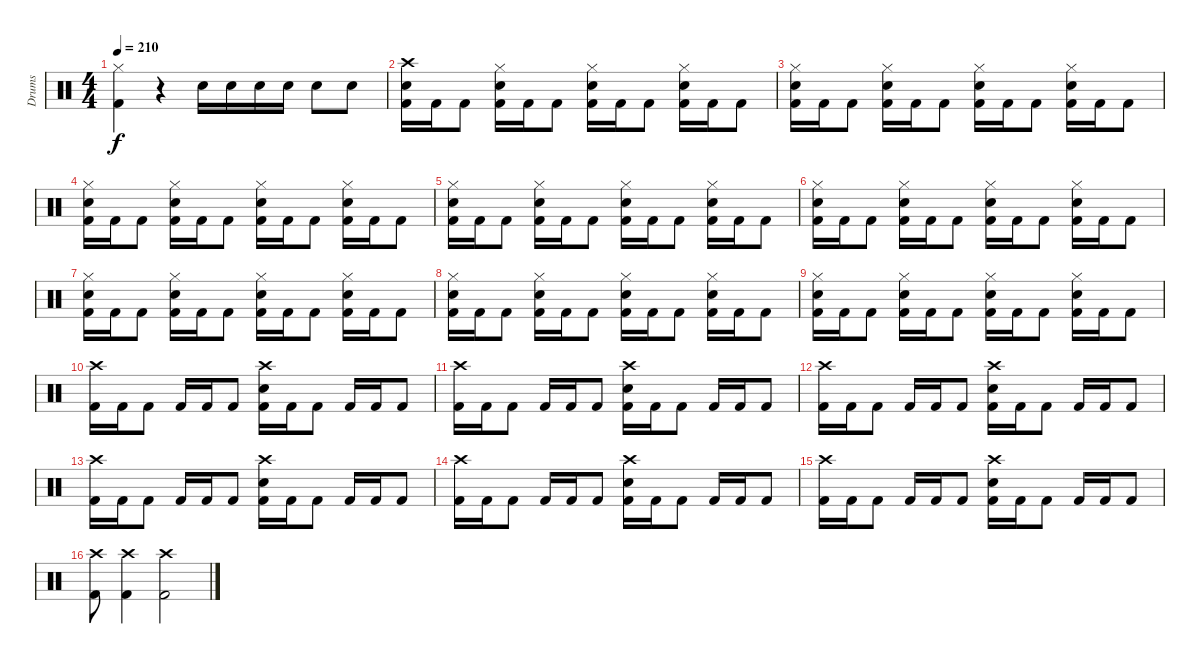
\track ("Drums" "Drums") {instrument percussion}
\staff {score}
\articulation defaults
\ts (4 4)
\tempo 210
\clef neutral
\ks c
("Hi-Hat (closed)" "Kick (hit) 2").4{dy f} r.4 "Electric Snare (hit)".16 "Electric Snare (hit)".16 "Electric Snare (hit)".16 "Electric Snare (hit)".16 "Electric Snare (hit)".8 "Electric Snare (hit)".8 |
("Crash high (hit)" "Electric Snare (hit)" "Kick (hit) 2").16 "Kick (hit) 2".16 "Kick (hit) 2".8 ("Hi-Hat (closed)" "Electric Snare (hit)" "Kick (hit) 2").16 "Kick (hit) 2".16 "Kick (hit) 2".8 ("Hi-Hat (closed)" "Electric Snare (hit)" "Kick (hit) 2").16 "Kick (hit) 2".16 "Kick (hit) 2".8 ("Hi-Hat (closed)" "Electric Snare (hit)" "Kick (hit) 2").16 "Kick (hit) 2".16 "Kick (hit) 2".8 |
("Hi-Hat (closed)" "Electric Snare (hit)" "Kick (hit) 2").16 "Kick (hit) 2".16 "Kick (hit) 2".8 ("Hi-Hat (closed)" "Electric Snare (hit)" "Kick (hit) 2").16 "Kick (hit) 2".16 "Kick (hit) 2".8 ("Hi-Hat (closed)" "Electric Snare (hit)" "Kick (hit) 2").16 "Kick (hit) 2".16 "Kick (hit) 2".8 ("Hi-Hat (closed)" "Electric Snare (hit)" "Kick (hit) 2").16 "Kick (hit) 2".16 "Kick (hit) 2".8 |
("Hi-Hat (closed)" "Electric Snare (hit)" "Kick (hit) 2").16 "Kick (hit) 2".16 "Kick (hit) 2".8 ("Hi-Hat (closed)" "Electric Snare (hit)" "Kick (hit) 2").16 "Kick (hit) 2".16 "Kick (hit) 2".8 ("Hi-Hat (closed)" "Electric Snare (hit)" "Kick (hit) 2").16 "Kick (hit) 2".16 "Kick (hit) 2".8 ("Hi-Hat (closed)" "Electric Snare (hit)" "Kick (hit) 2").16 "Kick (hit) 2".16 "Kick (hit) 2".8 |
("Hi-Hat (closed)" "Electric Snare (hit)" "Kick (hit) 2").16 "Kick (hit) 2".16 "Kick (hit) 2".8 ("Hi-Hat (closed)" "Electric Snare (hit)" "Kick (hit) 2").16 "Kick (hit) 2".16 "Kick (hit) 2".8 ("Hi-Hat (closed)" "Electric Snare (hit)" "Kick (hit) 2").16 "Kick (hit) 2".16 "Kick (hit) 2".8 ("Hi-Hat (closed)" "Electric Snare (hit)" "Kick (hit) 2").16 "Kick (hit) 2".16 "Kick (hit) 2".8 |
("Hi-Hat (closed)" "Electric Snare (hit)" "Kick (hit) 2").16 "Kick (hit) 2".16 "Kick (hit) 2".8 ("Hi-Hat (closed)" "Electric Snare (hit)" "Kick (hit) 2").16 "Kick (hit) 2".16 "Kick (hit) 2".8 ("Hi-Hat (closed)" "Electric Snare (hit)" "Kick (hit) 2").16 "Kick (hit) 2".16 "Kick (hit) 2".8 ("Hi-Hat (closed)" "Electric Snare (hit)" "Kick (hit) 2").16 "Kick (hit) 2".16 "Kick (hit) 2".8 |
("Hi-Hat (closed)" "Electric Snare (hit)" "Kick (hit) 2").16 "Kick (hit) 2".16 "Kick (hit) 2".8 ("Hi-Hat (closed)" "Electric Snare (hit)" "Kick (hit) 2").16 "Kick (hit) 2".16 "Kick (hit) 2".8 ("Hi-Hat (closed)" "Electric Snare (hit)" "Kick (hit) 2").16 "Kick (hit) 2".16 "Kick (hit) 2".8 ("Hi-Hat (closed)" "Electric Snare (hit)" "Kick (hit) 2").16 "Kick (hit) 2".16 "Kick (hit) 2".8 |
("Hi-Hat (closed)" "Electric Snare (hit)" "Kick (hit) 2").16 "Kick (hit) 2".16 "Kick (hit) 2".8 ("Hi-Hat (closed)" "Electric Snare (hit)" "Kick (hit) 2").16 "Kick (hit) 2".16 "Kick (hit) 2".8 ("Hi-Hat (closed)" "Electric Snare (hit)" "Kick (hit) 2").16 "Kick (hit) 2".16 "Kick (hit) 2".8 ("Hi-Hat (closed)" "Electric Snare (hit)" "Kick (hit) 2").16 "Kick (hit) 2".16 "Kick (hit) 2".8 |
("Hi-Hat (closed)" "Electric Snare (hit)" "Kick (hit) 2").16 "Kick (hit) 2".16 "Kick (hit) 2".8 ("Hi-Hat (closed)" "Electric Snare (hit)" "Kick (hit) 2").16 "Kick (hit) 2".16 "Kick (hit) 2".8 ("Hi-Hat (closed)" "Electric Snare (hit)" "Kick (hit) 2").16 "Kick (hit) 2".16 "Kick (hit) 2".8 ("Hi-Hat (closed)" "Electric Snare (hit)" "Kick (hit) 2").16 "Kick (hit) 2".16 "Kick (hit) 2".8 |
("Crash high (hit)" "Kick (hit) 2").16 "Kick (hit) 2".16 "Kick (hit) 2".8 "Kick (hit) 2".16 "Kick (hit) 2".16 "Kick (hit) 2".8 ("Crash high (hit)" "Electric Snare (hit)" "Kick (hit) 2").16 "Kick (hit) 2".16 "Kick (hit) 2".8 "Kick (hit) 2".16 "Kick (hit) 2".16 "Kick (hit) 2".8 |
("Crash high (hit)" "Kick (hit) 2").16 "Kick (hit) 2".16 "Kick (hit) 2".8 "Kick (hit) 2".16 "Kick (hit) 2".16 "Kick (hit) 2".8 ("Crash high (hit)" "Electric Snare (hit)" "Kick (hit) 2").16 "Kick (hit) 2".16 "Kick (hit) 2".8 "Kick (hit) 2".16 "Kick (hit) 2".16 "Kick (hit) 2".8 |
("Crash high (hit)" "Kick (hit) 2").16 "Kick (hit) 2".16 "Kick (hit) 2".8 "Kick (hit) 2".16 "Kick (hit) 2".16 "Kick (hit) 2".8 ("Crash high (hit)" "Electric Snare (hit)" "Kick (hit) 2").16 "Kick (hit) 2".16 "Kick (hit) 2".8 "Kick (hit) 2".16 "Kick (hit) 2".16 "Kick (hit) 2".8 |
("Crash high (hit)" "Kick (hit) 2").16 "Kick (hit) 2".16 "Kick (hit) 2".8 "Kick (hit) 2".16 "Kick (hit) 2".16 "Kick (hit) 2".8 ("Crash high (hit)" "Electric Snare (hit)" "Kick (hit) 2").16 "Kick (hit) 2".16 "Kick (hit) 2".8 "Kick (hit) 2".16 "Kick (hit) 2".16 "Kick (hit) 2".8 |
("Crash high (hit)" "Kick (hit) 2").16 "Kick (hit) 2".16 "Kick (hit) 2".8 "Kick (hit) 2".16 "Kick (hit) 2".16 "Kick (hit) 2".8 ("Crash high (hit)" "Electric Snare (hit)" "Kick (hit) 2").16 "Kick (hit) 2".16 "Kick (hit) 2".8 "Kick (hit) 2".16 "Kick (hit) 2".16 "Kick (hit) 2".8 |
("Crash high (hit)" "Kick (hit) 2").16 "Kick (hit) 2".16 "Kick (hit) 2".8 "Kick (hit) 2".16 "Kick (hit) 2".16 "Kick (hit) 2".8 ("Crash high (hit)" "Electric Snare (hit)" "Kick (hit) 2").16 "Kick (hit) 2".16 "Kick (hit) 2".8 "Kick (hit) 2".16 "Kick (hit) 2".16 "Kick (hit) 2".8 |
("Crash high (hit)" "Kick (hit) 2").8 ("Crash high (hit)" "Kick (hit) 2").4 ("Crash high (hit)" "Kick (hit) 2").2
